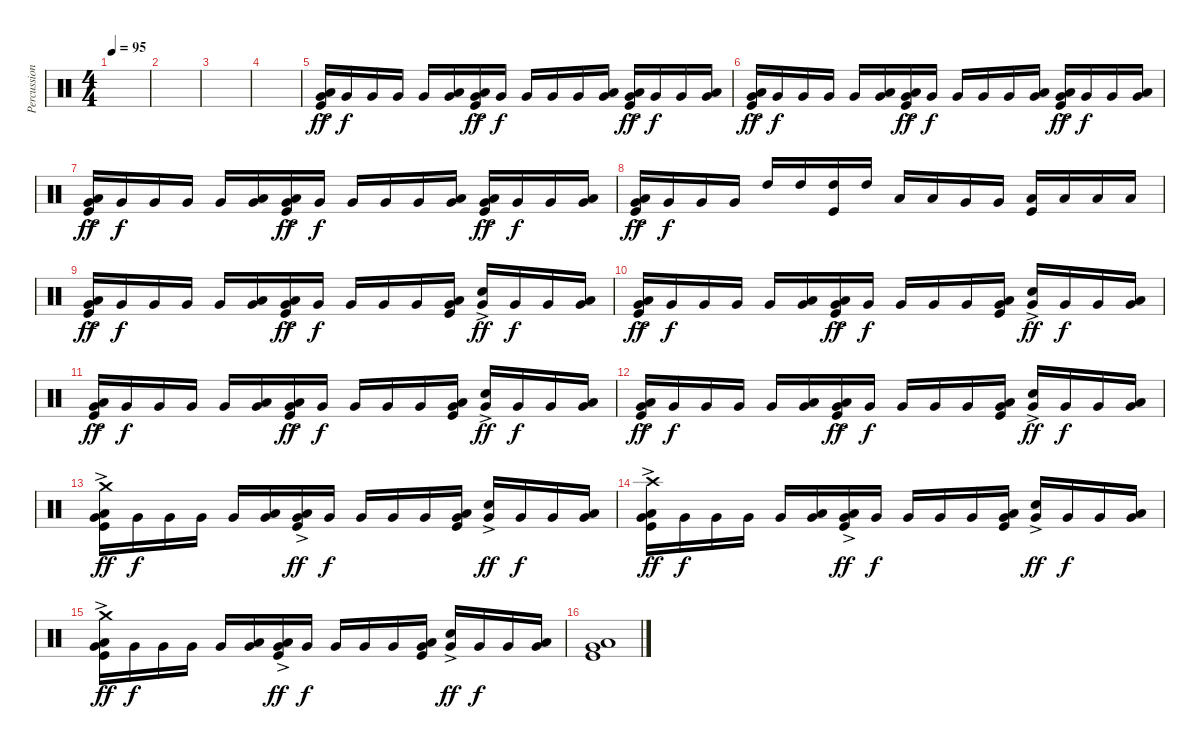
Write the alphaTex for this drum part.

\track ("Percussion" "Percussion") {instrument percussion}
\staff {score}
\articulation defaults
\ts (4 4)
\tempo 95
\clef neutral
\ks c
|
|
|
|
("Low Floor Tom (hit)"{ac} "Very Low Tom (hit)" "Kick (hit)").16{dy ff volume 15} "Very Low Tom (hit)".16{dy f} "Very Low Tom (hit)".16 "Very Low Tom (hit)".16 "Very Low Tom (hit)".16 ("Low Floor Tom (hit)" "Very Low Tom (hit)").16 ("Low Floor Tom (hit)"{ac} "Very Low Tom (hit)" "Kick (hit)").16{dy ff} "Very Low Tom (hit)".16{dy f} "Very Low Tom (hit)".16 "Very Low Tom (hit)".16 "Very Low Tom (hit)".16 ("Low Floor Tom (hit)" "Very Low Tom (hit)").16 ("Low Floor Tom (hit)"{ac} "Very Low Tom (hit)" "Kick (hit)").16{dy ff} "Very Low Tom (hit)".16{dy f} "Very Low Tom (hit)".16 ("Low Floor Tom (hit)" "Very Low Tom (hit)").16 |
("Low Floor Tom (hit)"{ac} "Very Low Tom (hit)" "Kick (hit)").16{dy ff} "Very Low Tom (hit)".16{dy f} "Very Low Tom (hit)".16 "Very Low Tom (hit)".16 "Very Low Tom (hit)".16 ("Low Floor Tom (hit)" "Very Low Tom (hit)").16 ("Low Floor Tom (hit)"{ac} "Very Low Tom (hit)" "Kick (hit)").16{dy ff} "Very Low Tom (hit)".16{dy f} "Very Low Tom (hit)".16 "Very Low Tom (hit)".16 "Very Low Tom (hit)".16 ("Low Floor Tom (hit)" "Very Low Tom (hit)").16 ("Low Floor Tom (hit)"{ac} "Very Low Tom (hit)" "Kick (hit)").16{dy ff} "Very Low Tom (hit)".16{dy f} "Very Low Tom (hit)".16 ("Low Floor Tom (hit)" "Very Low Tom (hit)").16 |
("Low Floor Tom (hit)"{ac} "Very Low Tom (hit)" "Kick (hit)").16{dy ff} "Very Low Tom (hit)".16{dy f} "Very Low Tom (hit)".16 "Very Low Tom (hit)".16 "Very Low Tom (hit)".16 ("Low Floor Tom (hit)" "Very Low Tom (hit)").16 ("Low Floor Tom (hit)"{ac} "Very Low Tom (hit)" "Kick (hit)").16{dy ff} "Very Low Tom (hit)".16{dy f} "Very Low Tom (hit)".16 "Very Low Tom (hit)".16 "Very Low Tom (hit)".16 ("Low Floor Tom (hit)" "Very Low Tom (hit)").16 ("Low Floor Tom (hit)"{ac} "Very Low Tom (hit)" "Kick (hit)").16{dy ff} "Very Low Tom (hit)".16{dy f} "Very Low Tom (hit)".16 ("Low Floor Tom (hit)" "Very Low Tom (hit)").16 |
("Low Floor Tom (hit)"{ac} "Very Low Tom (hit)" "Kick (hit)").16{dy ff} "Very Low Tom (hit)".16{dy f} "Very Low Tom (hit)".16 "Very Low Tom (hit)".16 "High Tom (hit)".16 "High Tom (hit)".16 ("High Tom (hit)" "Kick (hit)").16 "High Tom (hit)".16 "Low Tom (hit)".16 "Low Tom (hit)".16 "Very Low Tom (hit)".16 "Very Low Tom (hit)".16 ("Low Floor Tom (hit)" "Kick (hit)").16 "Low Floor Tom (hit)".16 "Low Floor Tom (hit)".16 "Low Floor Tom (hit)".16 |
("Low Floor Tom (hit)"{ac} "Very Low Tom (hit)" "Kick (hit)").16{dy ff} "Very Low Tom (hit)".16{dy f} "Very Low Tom (hit)".16 "Very Low Tom (hit)".16 "Very Low Tom (hit)".16 ("Low Floor Tom (hit)" "Very Low Tom (hit)").16 ("Low Floor Tom (hit)"{ac} "Very Low Tom (hit)" "Kick (hit)").16{dy ff} "Very Low Tom (hit)".16{dy f} "Very Low Tom (hit)".16 "Very Low Tom (hit)".16 "Very Low Tom (hit)".16 ("Low Floor Tom (hit)" "Very Low Tom (hit)" "Kick (hit)").16 ("Snare (hit) 2"{ac} "Very Low Tom (hit)").16{dy ff} "Very Low Tom (hit)".16{dy f} "Very Low Tom (hit)".16 ("Low Floor Tom (hit)" "Very Low Tom (hit)").16 |
("Low Floor Tom (hit)"{ac} "Very Low Tom (hit)" "Kick (hit)").16{dy ff} "Very Low Tom (hit)".16{dy f} "Very Low Tom (hit)".16 "Very Low Tom (hit)".16 "Very Low Tom (hit)".16 ("Low Floor Tom (hit)" "Very Low Tom (hit)").16 ("Low Floor Tom (hit)"{ac} "Very Low Tom (hit)" "Kick (hit)").16{dy ff} "Very Low Tom (hit)".16{dy f} "Very Low Tom (hit)".16 "Very Low Tom (hit)".16 "Very Low Tom (hit)".16 ("Low Floor Tom (hit)" "Very Low Tom (hit)" "Kick (hit)").16 ("Snare (hit) 2"{ac} "Very Low Tom (hit)").16{dy ff} "Very Low Tom (hit)".16{dy f} "Very Low Tom (hit)".16 ("Low Floor Tom (hit)" "Very Low Tom (hit)").16 |
("Low Floor Tom (hit)"{ac} "Very Low Tom (hit)" "Kick (hit)").16{dy ff} "Very Low Tom (hit)".16{dy f} "Very Low Tom (hit)".16 "Very Low Tom (hit)".16 "Very Low Tom (hit)".16 ("Low Floor Tom (hit)" "Very Low Tom (hit)").16 ("Low Floor Tom (hit)"{ac} "Very Low Tom (hit)" "Kick (hit)").16{dy ff} "Very Low Tom (hit)".16{dy f} "Very Low Tom (hit)".16 "Very Low Tom (hit)".16 "Very Low Tom (hit)".16 ("Low Floor Tom (hit)" "Very Low Tom (hit)" "Kick (hit)").16 ("Snare (hit) 2"{ac} "Very Low Tom (hit)").16{dy ff} "Very Low Tom (hit)".16{dy f} "Very Low Tom (hit)".16 ("Low Floor Tom (hit)" "Very Low Tom (hit)").16 |
("Low Floor Tom (hit)"{ac} "Very Low Tom (hit)" "Kick (hit)").16{dy ff} "Very Low Tom (hit)".16{dy f} "Very Low Tom (hit)".16 "Very Low Tom (hit)".16 "Very Low Tom (hit)".16 ("Low Floor Tom (hit)" "Very Low Tom (hit)").16 ("Low Floor Tom (hit)"{ac} "Very Low Tom (hit)" "Kick (hit)").16{dy ff} "Very Low Tom (hit)".16{dy f} "Very Low Tom (hit)".16 "Very Low Tom (hit)".16 "Very Low Tom (hit)".16 ("Low Floor Tom (hit)" "Very Low Tom (hit)" "Kick (hit)").16 ("Snare (hit) 2"{ac} "Very Low Tom (hit)").16{dy ff} "Very Low Tom (hit)".16{dy f} "Very Low Tom (hit)".16 ("Low Floor Tom (hit)" "Very Low Tom (hit)").16 |
("Crash medium (hit)" "Low Floor Tom (hit)"{ac} "Very Low Tom (hit)" "Kick (hit)").16{dy ff} "Very Low Tom (hit)".16{dy f} "Very Low Tom (hit)".16 "Very Low Tom (hit)".16 "Very Low Tom (hit)".16 ("Low Floor Tom (hit)" "Very Low Tom (hit)").16 ("Low Floor Tom (hit)"{ac} "Very Low Tom (hit)" "Kick (hit)").16{dy ff} "Very Low Tom (hit)".16{dy f} "Very Low Tom (hit)".16 "Very Low Tom (hit)".16 "Very Low Tom (hit)".16 ("Low Floor Tom (hit)" "Very Low Tom (hit)" "Kick (hit)").16 ("Snare (hit) 2"{ac} "Very Low Tom (hit)").16{dy ff} "Very Low Tom (hit)".16{dy f} "Very Low Tom (hit)".16 ("Low Floor Tom (hit)" "Very Low Tom (hit)").16 |
("Crash high (hit)" "Low Floor Tom (hit)"{ac} "Very Low Tom (hit)" "Kick (hit)").16{dy ff} "Very Low Tom (hit)".16{dy f} "Very Low Tom (hit)".16 "Very Low Tom (hit)".16 "Very Low Tom (hit)".16 ("Low Floor Tom (hit)" "Very Low Tom (hit)").16 ("Low Floor Tom (hit)"{ac} "Very Low Tom (hit)" "Kick (hit)").16{dy ff} "Very Low Tom (hit)".16{dy f} "Very Low Tom (hit)".16 "Very Low Tom (hit)".16 "Very Low Tom (hit)".16 ("Low Floor Tom (hit)" "Very Low Tom (hit)" "Kick (hit)").16 ("Snare (hit) 2"{ac} "Very Low Tom (hit)").16{dy ff} "Very Low Tom (hit)".16{dy f} "Very Low Tom (hit)".16 ("Low Floor Tom (hit)" "Very Low Tom (hit)").16 |
("Crash medium (hit)" "Low Floor Tom (hit)"{ac} "Very Low Tom (hit)" "Kick (hit)").16{dy ff} "Very Low Tom (hit)".16{dy f} "Very Low Tom (hit)".16 "Very Low Tom (hit)".16 "Very Low Tom (hit)".16 ("Low Floor Tom (hit)" "Very Low Tom (hit)").16 ("Low Floor Tom (hit)"{ac} "Very Low Tom (hit)" "Kick (hit)").16{dy ff} "Very Low Tom (hit)".16{dy f} "Very Low Tom (hit)".16 "Very Low Tom (hit)".16 "Very Low Tom (hit)".16 ("Low Floor Tom (hit)" "Very Low Tom (hit)" "Kick (hit)").16 ("Snare (hit) 2"{ac} "Very Low Tom (hit)").16{dy ff} "Very Low Tom (hit)".16{dy f} "Very Low Tom (hit)".16 ("Low Floor Tom (hit)" "Very Low Tom (hit)").16 |
("Low Floor Tom (hit)" "Very Low Tom (hit)" "Kick (hit)").1
